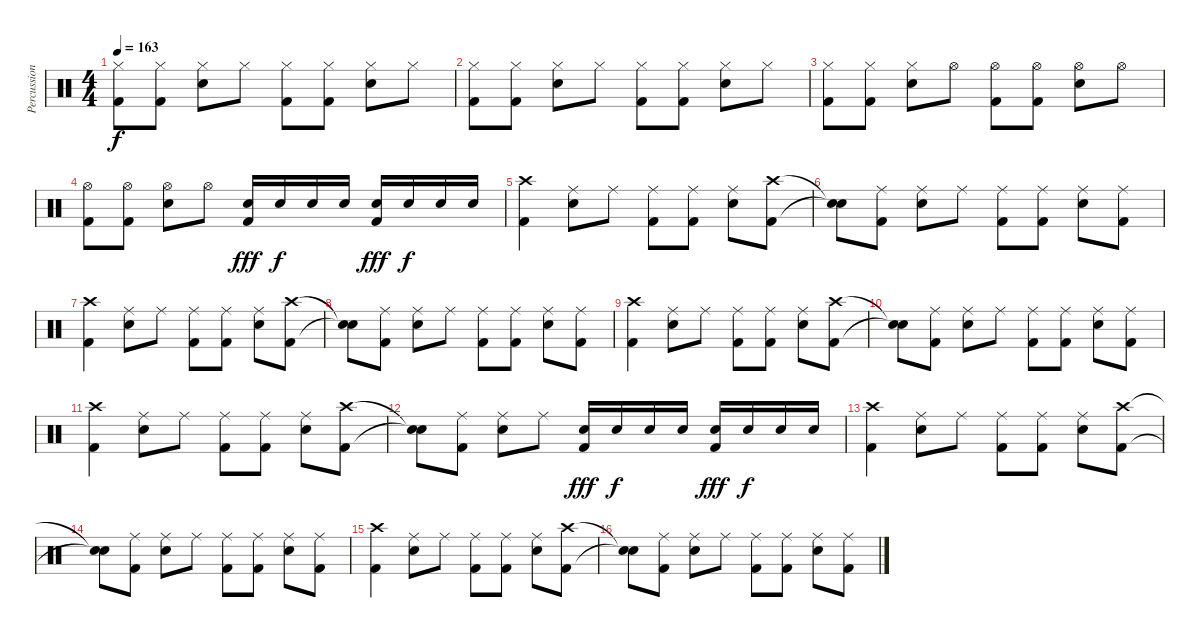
\track ("Percussion" "Percussion") {instrument percussion}
\staff {score}
\articulation defaults
\ts (4 4)
\tempo 163
\clef neutral
\ks c
("Hi-Hat (closed)" "Kick (hit) 2").8{dy f} ("Hi-Hat (closed)" "Kick (hit) 2").8 ("Hi-Hat (closed)" "Snare (hit) 2").8 "Hi-Hat (closed)".8 ("Hi-Hat (closed)" "Kick (hit) 2").8 ("Hi-Hat (closed)" "Kick (hit) 2").8 ("Hi-Hat (closed)" "Snare (hit) 2").8 "Hi-Hat (closed)".8 |
("Hi-Hat (closed)" "Kick (hit) 2").8 ("Hi-Hat (closed)" "Kick (hit) 2").8 ("Hi-Hat (closed)" "Snare (hit) 2").8 "Hi-Hat (closed)".8 ("Hi-Hat (closed)" "Kick (hit) 2").8 ("Hi-Hat (closed)" "Kick (hit) 2").8 ("Hi-Hat (closed)" "Snare (hit) 2").8 "Hi-Hat (closed)".8 |
("Hi-Hat (closed)" "Kick (hit) 2").8 ("Hi-Hat (closed)" "Kick (hit) 2").8 ("Hi-Hat (closed)" "Snare (hit) 2").8 "Hi-Hat (open)".8 ("Hi-Hat (open)" "Kick (hit) 2").8 ("Hi-Hat (open)" "Kick (hit) 2").8 ("Hi-Hat (open)" "Snare (hit) 2").8 "Hi-Hat (open)".8 |
("Hi-Hat (open)" "Kick (hit) 2").8 ("Hi-Hat (open)" "Kick (hit) 2").8 ("Hi-Hat (open)" "Snare (hit) 2").8 "Hi-Hat (open)".8 ("Snare (hit) 2" "Kick (hit) 2").16{dy fff} "Snare (hit) 2".16{dy f} "Snare (hit) 2".16 "Snare (hit) 2".16 ("Snare (hit) 2" "Kick (hit) 2").16{dy fff} "Snare (hit) 2".16{dy f} "Snare (hit) 2".16 "Snare (hit) 2".16 |
("Crash high (hit)" "Kick (hit) 2").4 ("Ride (middle)" "Snare (hit) 2").8 "Ride (middle)".8 ("Ride (middle)" "Kick (hit) 2").8 ("Ride (middle)" "Kick (hit) 2").8 ("Ride (middle)" "Snare (hit) 2").8 ("Crash high (hit)" "Kick (hit) 2").8 |
("Snare (hit)"{t} "Snare (hit)"{t}).8 ("Ride (middle)" "Kick (hit) 2").8 ("Ride (middle)" "Snare (hit) 2").8 "Ride (middle)".8 ("Ride (middle)" "Kick (hit) 2").8 ("Ride (middle)" "Kick (hit) 2").8 ("Ride (middle)" "Snare (hit) 2").8 ("Ride (middle)" "Kick (hit) 2").8 |
("Crash high (hit)" "Kick (hit) 2").4 ("Ride (middle)" "Snare (hit) 2").8 "Ride (middle)".8 ("Ride (middle)" "Kick (hit) 2").8 ("Ride (middle)" "Kick (hit) 2").8 ("Ride (middle)" "Snare (hit) 2").8 ("Crash high (hit)" "Kick (hit) 2").8 |
("Snare (hit)"{t} "Snare (hit)"{t}).8 ("Ride (middle)" "Kick (hit) 2").8 ("Ride (middle)" "Snare (hit) 2").8 "Ride (middle)".8 ("Ride (middle)" "Kick (hit) 2").8 ("Ride (middle)" "Kick (hit) 2").8 ("Ride (middle)" "Snare (hit) 2").8 ("Ride (middle)" "Kick (hit) 2").8 |
("Crash high (hit)" "Kick (hit) 2").4 ("Ride (middle)" "Snare (hit) 2").8 "Ride (middle)".8 ("Ride (middle)" "Kick (hit) 2").8 ("Ride (middle)" "Kick (hit) 2").8 ("Ride (middle)" "Snare (hit) 2").8 ("Crash high (hit)" "Kick (hit) 2").8 |
("Snare (hit)"{t} "Snare (hit)"{t}).8 ("Ride (middle)" "Kick (hit) 2").8 ("Ride (middle)" "Snare (hit) 2").8 "Ride (middle)".8 ("Ride (middle)" "Kick (hit) 2").8 ("Ride (middle)" "Kick (hit) 2").8 ("Ride (middle)" "Snare (hit) 2").8 ("Ride (middle)" "Kick (hit) 2").8 |
("Crash high (hit)" "Kick (hit) 2").4 ("Ride (middle)" "Snare (hit) 2").8 "Ride (middle)".8 ("Ride (middle)" "Kick (hit) 2").8 ("Ride (middle)" "Kick (hit) 2").8 ("Ride (middle)" "Snare (hit) 2").8 ("Crash high (hit)" "Kick (hit) 2").8 |
("Snare (hit)"{t} "Snare (hit)"{t}).8 ("Ride (middle)" "Kick (hit) 2").8 ("Ride (middle)" "Snare (hit) 2").8 "Ride (middle)".8 ("Snare (hit) 2" "Kick (hit) 2").16{dy fff} "Snare (hit) 2".16{dy f} "Snare (hit) 2".16 "Snare (hit) 2".16 ("Snare (hit) 2" "Kick (hit) 2").16{dy fff} "Snare (hit) 2".16{dy f} "Snare (hit) 2".16 "Snare (hit) 2".16 |
("Crash high (hit)" "Kick (hit) 2").4 ("Ride (middle)" "Snare (hit) 2").8 "Ride (middle)".8 ("Ride (middle)" "Kick (hit) 2").8 ("Ride (middle)" "Kick (hit) 2").8 ("Ride (middle)" "Snare (hit) 2").8 ("Crash high (hit)" "Kick (hit) 2").8 |
("Snare (hit)"{t} "Snare (hit)"{t}).8 ("Ride (middle)" "Kick (hit) 2").8 ("Ride (middle)" "Snare (hit) 2").8 "Ride (middle)".8 ("Ride (middle)" "Kick (hit) 2").8 ("Ride (middle)" "Kick (hit) 2").8 ("Ride (middle)" "Snare (hit) 2").8 ("Ride (middle)" "Kick (hit) 2").8 |
("Crash high (hit)" "Kick (hit) 2").4 ("Ride (middle)" "Snare (hit) 2").8 "Ride (middle)".8 ("Ride (middle)" "Kick (hit) 2").8 ("Ride (middle)" "Kick (hit) 2").8 ("Ride (middle)" "Snare (hit) 2").8 ("Crash high (hit)" "Kick (hit) 2").8 |
("Snare (hit)"{t} "Snare (hit)"{t}).8 ("Ride (middle)" "Kick (hit) 2").8 ("Ride (middle)" "Snare (hit) 2").8 "Ride (middle)".8 ("Ride (middle)" "Kick (hit) 2").8 ("Ride (middle)" "Kick (hit) 2").8 ("Ride (middle)" "Snare (hit) 2").8 ("Ride (middle)" "Kick (hit) 2").8
